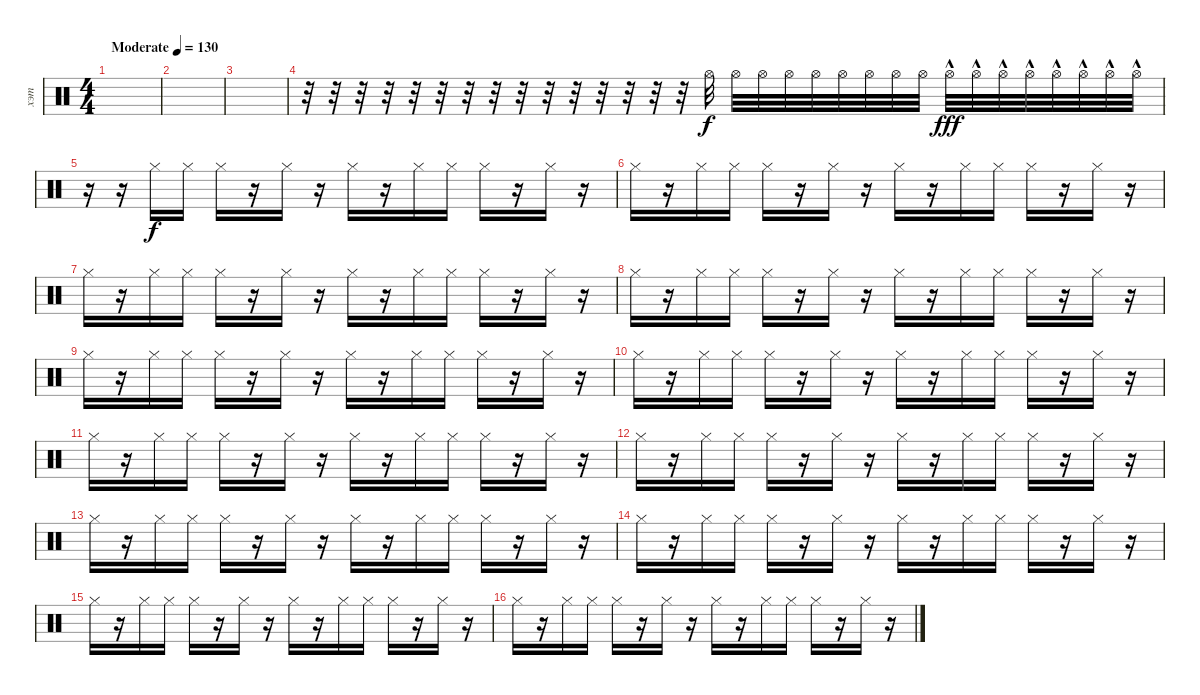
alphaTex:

\track ("хэт" "хэт") {instrument percussion}
\staff {score}
\articulation defaults
\ts (4 4)
\tempo (130 "Moderate")
\clef neutral
\ks c
|
|
|
r.32 r.32 r.32 r.32 r.32 r.32 r.32 r.32 r.32 r.32 r.32 r.32 r.32 r.32 r.32 "Hi-Hat (open)".32 "Hi-Hat (open)".32 "Hi-Hat (open)".32 "Hi-Hat (open)".32 "Hi-Hat (open)".32 "Hi-Hat (open)".32 "Hi-Hat (open)".32 "Hi-Hat (open)".32 "Hi-Hat (open)".32 "Hi-Hat (open)"{hac}.32{dy fff} "Hi-Hat (open)"{hac}.32 "Hi-Hat (open)"{hac}.32 "Hi-Hat (open)"{hac}.32 "Hi-Hat (open)"{hac}.32 "Hi-Hat (open)"{hac}.32 "Hi-Hat (open)"{hac}.32 "Hi-Hat (open)"{hac}.32 |
r.16 r.16 "Hi-Hat (closed)".16{dy f} "Hi-Hat (closed)".16 "Hi-Hat (closed)".16 r.16 "Hi-Hat (closed)".16 r.16 "Hi-Hat (closed)".16 r.16 "Hi-Hat (closed)".16 "Hi-Hat (closed)".16 "Hi-Hat (closed)".16 r.16 "Hi-Hat (closed)".16 r.16 |
"Hi-Hat (closed)".16 r.16 "Hi-Hat (closed)".16 "Hi-Hat (closed)".16 "Hi-Hat (closed)".16 r.16 "Hi-Hat (closed)".16 r.16 "Hi-Hat (closed)".16 r.16 "Hi-Hat (closed)".16 "Hi-Hat (closed)".16 "Hi-Hat (closed)".16 r.16 "Hi-Hat (closed)".16 r.16 |
"Hi-Hat (closed)".16 r.16 "Hi-Hat (closed)".16 "Hi-Hat (closed)".16 "Hi-Hat (closed)".16 r.16 "Hi-Hat (closed)".16 r.16 "Hi-Hat (closed)".16 r.16 "Hi-Hat (closed)".16 "Hi-Hat (closed)".16 "Hi-Hat (closed)".16 r.16 "Hi-Hat (closed)".16 r.16 |
"Hi-Hat (closed)".16 r.16 "Hi-Hat (closed)".16 "Hi-Hat (closed)".16 "Hi-Hat (closed)".16 r.16 "Hi-Hat (closed)".16 r.16 "Hi-Hat (closed)".16 r.16 "Hi-Hat (closed)".16 "Hi-Hat (closed)".16 "Hi-Hat (closed)".16 r.16 "Hi-Hat (closed)".16 r.16 |
"Hi-Hat (closed)".16 r.16 "Hi-Hat (closed)".16 "Hi-Hat (closed)".16 "Hi-Hat (closed)".16 r.16 "Hi-Hat (closed)".16 r.16 "Hi-Hat (closed)".16 r.16 "Hi-Hat (closed)".16 "Hi-Hat (closed)".16 "Hi-Hat (closed)".16 r.16 "Hi-Hat (closed)".16 r.16 |
"Hi-Hat (closed)".16 r.16 "Hi-Hat (closed)".16 "Hi-Hat (closed)".16 "Hi-Hat (closed)".16 r.16 "Hi-Hat (closed)".16 r.16 "Hi-Hat (closed)".16 r.16 "Hi-Hat (closed)".16 "Hi-Hat (closed)".16 "Hi-Hat (closed)".16 r.16 "Hi-Hat (closed)".16 r.16 |
"Hi-Hat (closed)".16 r.16 "Hi-Hat (closed)".16 "Hi-Hat (closed)".16 "Hi-Hat (closed)".16 r.16 "Hi-Hat (closed)".16 r.16 "Hi-Hat (closed)".16 r.16 "Hi-Hat (closed)".16 "Hi-Hat (closed)".16 "Hi-Hat (closed)".16 r.16 "Hi-Hat (closed)".16 r.16 |
"Hi-Hat (closed)".16 r.16 "Hi-Hat (closed)".16 "Hi-Hat (closed)".16 "Hi-Hat (closed)".16 r.16 "Hi-Hat (closed)".16 r.16 "Hi-Hat (closed)".16 r.16 "Hi-Hat (closed)".16 "Hi-Hat (closed)".16 "Hi-Hat (closed)".16 r.16 "Hi-Hat (closed)".16 r.16 |
"Hi-Hat (closed)".16 r.16 "Hi-Hat (closed)".16 "Hi-Hat (closed)".16 "Hi-Hat (closed)".16 r.16 "Hi-Hat (closed)".16 r.16 "Hi-Hat (closed)".16 r.16 "Hi-Hat (closed)".16 "Hi-Hat (closed)".16 "Hi-Hat (closed)".16 r.16 "Hi-Hat (closed)".16 r.16 |
"Hi-Hat (closed)".16 r.16 "Hi-Hat (closed)".16 "Hi-Hat (closed)".16 "Hi-Hat (closed)".16 r.16 "Hi-Hat (closed)".16 r.16 "Hi-Hat (closed)".16 r.16 "Hi-Hat (closed)".16 "Hi-Hat (closed)".16 "Hi-Hat (closed)".16 r.16 "Hi-Hat (closed)".16 r.16 |
"Hi-Hat (closed)".16 r.16 "Hi-Hat (closed)".16 "Hi-Hat (closed)".16 "Hi-Hat (closed)".16 r.16 "Hi-Hat (closed)".16 r.16 "Hi-Hat (closed)".16 r.16 "Hi-Hat (closed)".16 "Hi-Hat (closed)".16 "Hi-Hat (closed)".16 r.16 "Hi-Hat (closed)".16 r.16 |
"Hi-Hat (closed)".16 r.16 "Hi-Hat (closed)".16 "Hi-Hat (closed)".16 "Hi-Hat (closed)".16 r.16 "Hi-Hat (closed)".16 r.16 "Hi-Hat (closed)".16 r.16 "Hi-Hat (closed)".16 "Hi-Hat (closed)".16 "Hi-Hat (closed)".16 r.16 "Hi-Hat (closed)".16 r.16
